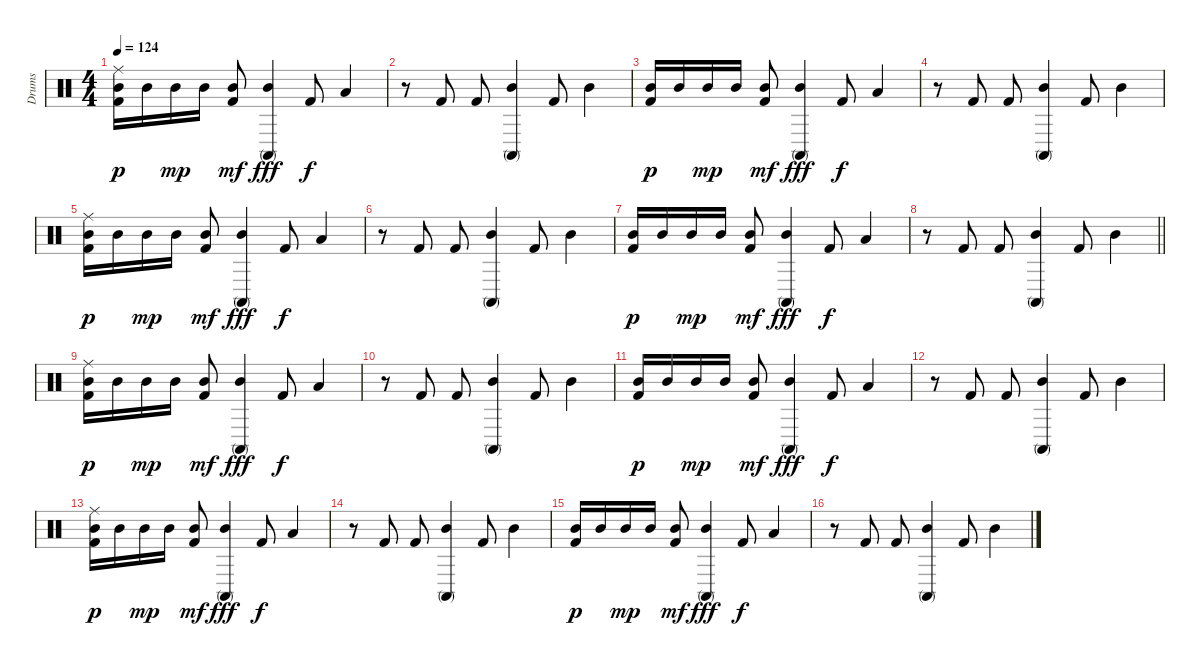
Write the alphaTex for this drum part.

\track ("Drums" "Drums") {instrument percussion}
\staff {score}
\articulation defaults
\ts (4 4)
\tempo 124
\clef neutral
\ks c
("Ride (middle)" "Mid Tom (hit)" "Kick (hit) 2").16{dy p} "Mid Tom (hit)".16 "Mid Tom (hit)".16{dy mp} "Mid Tom (hit)".16 ("Mid Tom (hit)" "Kick (hit) 2").8{dy mf} ("Mid Tom (hit)" "Conga high (mute)").4{dy fff} "Kick (hit) 2".8{dy f} "Low Tom (hit)".4 |
r.8 "Kick (hit) 2".8 "Kick (hit) 2".8 ("Mid Tom (hit)" "Conga high (mute)").4 "Kick (hit) 2".8 "Mid Tom (hit)".4 |
("Mid Tom (hit)" "Kick (hit) 2").16{dy p} "Mid Tom (hit)".16 "Mid Tom (hit)".16{dy mp} "Mid Tom (hit)".16 ("Mid Tom (hit)" "Kick (hit) 2").8{dy mf} ("Mid Tom (hit)" "Conga high (mute)").4{dy fff} "Kick (hit) 2".8{dy f} "Low Tom (hit)".4 |
r.8 "Kick (hit) 2".8 "Kick (hit) 2".8 ("Mid Tom (hit)" "Conga high (mute)").4 "Kick (hit) 2".8 "Mid Tom (hit)".4 |
("Ride (middle)" "Mid Tom (hit)" "Kick (hit) 2").16{dy p} "Mid Tom (hit)".16 "Mid Tom (hit)".16{dy mp} "Mid Tom (hit)".16 ("Mid Tom (hit)" "Kick (hit) 2").8{dy mf} ("Mid Tom (hit)" "Conga high (mute)").4{dy fff} "Kick (hit) 2".8{dy f} "Low Tom (hit)".4 |
r.8 "Kick (hit) 2".8 "Kick (hit) 2".8 ("Mid Tom (hit)" "Conga high (mute)").4 "Kick (hit) 2".8 "Mid Tom (hit)".4 |
("Mid Tom (hit)" "Kick (hit) 2").16{dy p} "Mid Tom (hit)".16 "Mid Tom (hit)".16{dy mp} "Mid Tom (hit)".16 ("Mid Tom (hit)" "Kick (hit) 2").8{dy mf} ("Mid Tom (hit)" "Conga high (mute)").4{dy fff} "Kick (hit) 2".8{dy f} "Low Tom (hit)".4 |
\barLineRight lightlight
r.8 "Kick (hit) 2".8 "Kick (hit) 2".8 ("Mid Tom (hit)" "Conga high (mute)").4 "Kick (hit) 2".8 "Mid Tom (hit)".4 |
("Ride (middle)" "Mid Tom (hit)" "Kick (hit) 2").16{dy p} "Mid Tom (hit)".16 "Mid Tom (hit)".16{dy mp} "Mid Tom (hit)".16 ("Mid Tom (hit)" "Kick (hit) 2").8{dy mf} ("Mid Tom (hit)" "Conga high (mute)").4{dy fff} "Kick (hit) 2".8{dy f} "Low Tom (hit)".4 |
r.8 "Kick (hit) 2".8 "Kick (hit) 2".8 ("Mid Tom (hit)" "Conga high (mute)").4 "Kick (hit) 2".8 "Mid Tom (hit)".4 |
("Mid Tom (hit)" "Kick (hit) 2").16{dy p} "Mid Tom (hit)".16 "Mid Tom (hit)".16{dy mp} "Mid Tom (hit)".16 ("Mid Tom (hit)" "Kick (hit) 2").8{dy mf} ("Mid Tom (hit)" "Conga high (mute)").4{dy fff} "Kick (hit) 2".8{dy f} "Low Tom (hit)".4 |
r.8 "Kick (hit) 2".8 "Kick (hit) 2".8 ("Mid Tom (hit)" "Conga high (mute)").4 "Kick (hit) 2".8 "Mid Tom (hit)".4 |
("Ride (middle)" "Mid Tom (hit)" "Kick (hit) 2").16{dy p} "Mid Tom (hit)".16 "Mid Tom (hit)".16{dy mp} "Mid Tom (hit)".16 ("Mid Tom (hit)" "Kick (hit) 2").8{dy mf} ("Mid Tom (hit)" "Conga high (mute)").4{dy fff} "Kick (hit) 2".8{dy f} "Low Tom (hit)".4 |
r.8 "Kick (hit) 2".8 "Kick (hit) 2".8 ("Mid Tom (hit)" "Conga high (mute)").4 "Kick (hit) 2".8 "Mid Tom (hit)".4 |
("Mid Tom (hit)" "Kick (hit) 2").16{dy p} "Mid Tom (hit)".16 "Mid Tom (hit)".16{dy mp} "Mid Tom (hit)".16 ("Mid Tom (hit)" "Kick (hit) 2").8{dy mf} ("Mid Tom (hit)" "Conga high (mute)").4{dy fff} "Kick (hit) 2".8{dy f} "Low Tom (hit)".4 |
r.8 "Kick (hit) 2".8 "Kick (hit) 2".8 ("Mid Tom (hit)" "Conga high (mute)").4 "Kick (hit) 2".8 "Mid Tom (hit)".4
